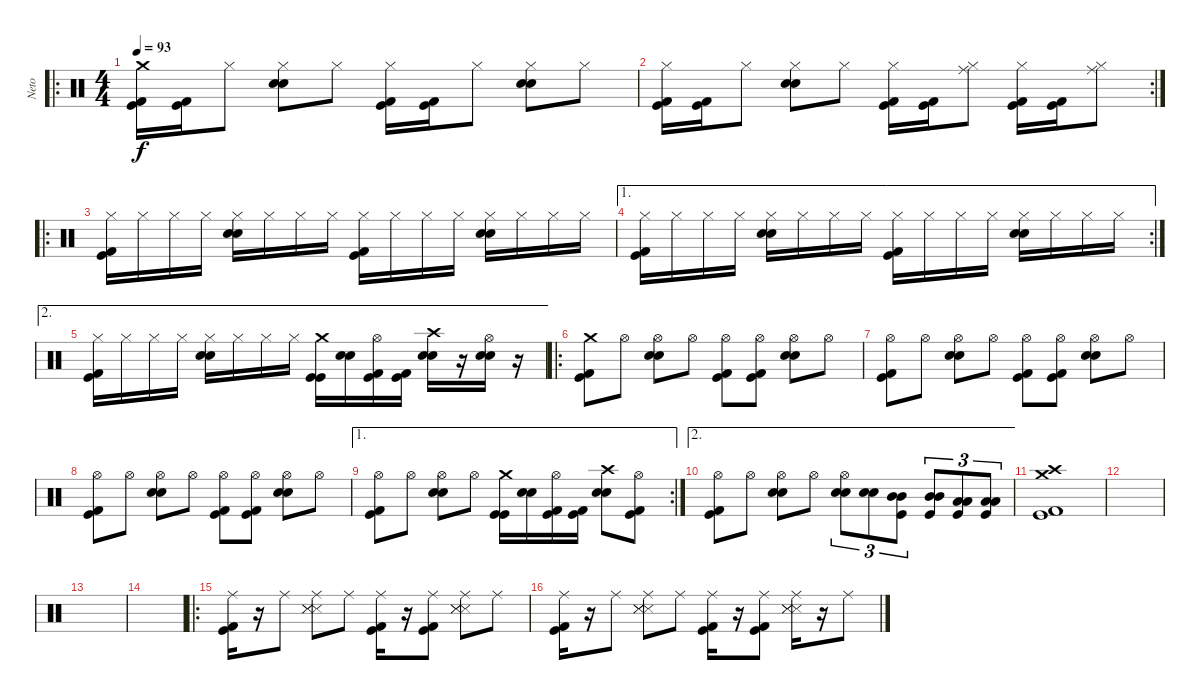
\track ("Neto" "Neto") {instrument percussion}
\staff {score}
\articulation defaults
\ro
\ts (4 4)
\tempo 93
\clef neutral
\ks c
("Crash medium (hit)" "Kick (hit)" "Kick (hit) 2").16{dy f} ("Kick (hit)" "Kick (hit) 2").16 "Hi-Hat (closed)".8 ("Hi-Hat (closed)" "Snare (hit) 2" "Snare (hit) 2").8 "Hi-Hat (closed)".8 ("Hi-Hat (closed)" "Kick (hit)" "Kick (hit) 2").16 ("Kick (hit)" "Kick (hit) 2").16 "Hi-Hat (closed)".8 ("Hi-Hat (closed)" "Snare (hit) 2" "Snare (hit) 2").8 "Hi-Hat (closed)".8 |
\rc 2
("Hi-Hat (closed)" "Kick (hit)" "Kick (hit) 2").16 ("Kick (hit)" "Kick (hit) 2").16 "Hi-Hat (closed)".8 ("Hi-Hat (closed)" "Snare (hit) 2" "Snare (hit) 2").8 "Hi-Hat (closed)".8 ("Hi-Hat (closed)" "Kick (hit)" "Kick (hit) 2").16 ("Kick (hit)" "Kick (hit) 2").16 ("Hi-Hat (closed)" "Ride (middle)").8 ("Hi-Hat (closed)" "Kick (hit)" "Kick (hit) 2").16 ("Kick (hit)" "Kick (hit) 2").16 ("Hi-Hat (closed)" "Ride (middle)").8 |
\ro
("Hi-Hat (closed)" "Kick (hit)" "Kick (hit) 2").16 "Hi-Hat (closed)".16 "Hi-Hat (closed)".16 "Hi-Hat (closed)".16 ("Hi-Hat (closed)" "Snare (hit) 2" "Snare (hit) 2").16 "Hi-Hat (closed)".16 "Hi-Hat (closed)".16 "Hi-Hat (closed)".16 ("Hi-Hat (closed)" "Kick (hit)" "Kick (hit) 2").16 "Hi-Hat (closed)".16 "Hi-Hat (closed)".16 "Hi-Hat (closed)".16 ("Hi-Hat (closed)" "Snare (hit) 2" "Snare (hit) 2").16 "Hi-Hat (closed)".16 "Hi-Hat (closed)".16 "Hi-Hat (closed)".16 |
\ae 1
\rc 2
("Hi-Hat (closed)" "Kick (hit)" "Kick (hit) 2").16 "Hi-Hat (closed)".16 "Hi-Hat (closed)".16 "Hi-Hat (closed)".16 ("Hi-Hat (closed)" "Snare (hit) 2" "Snare (hit) 2").16 "Hi-Hat (closed)".16 "Hi-Hat (closed)".16 "Hi-Hat (closed)".16 ("Hi-Hat (closed)" "Kick (hit)" "Kick (hit) 2").16 "Hi-Hat (closed)".16 "Hi-Hat (closed)".16 "Hi-Hat (closed)".16 ("Hi-Hat (closed)" "Snare (hit) 2" "Snare (hit) 2").16 "Hi-Hat (closed)".16 "Hi-Hat (closed)".16 "Hi-Hat (closed)".16 |
\ae 2
("Hi-Hat (closed)" "Kick (hit)" "Kick (hit) 2").16 "Hi-Hat (closed)".16 "Hi-Hat (closed)".16 "Hi-Hat (closed)".16 ("Hi-Hat (closed)" "Snare (hit) 2" "Snare (hit) 2").16 "Hi-Hat (closed)".16 "Hi-Hat (closed)".16 "Hi-Hat (closed)".16 ("Crash medium (hit)" "Kick (hit)" "Kick (hit)").16 ("Snare (hit) 2" "Snare (hit) 2").16 ("Hi-Hat (open)" "Kick (hit)" "Kick (hit) 2").16 ("Kick (hit)" "Kick (hit) 2").16 ("Crash high (hit)" "Snare (hit) 2" "Snare (hit) 2").16 r.16 ("Hi-Hat (open)" "Snare (hit) 2" "Snare (hit) 2").16 r.16 |
\ro
("Crash medium (hit)" "Kick (hit)" "Kick (hit) 2").8 "Hi-Hat (open)".8 ("Hi-Hat (open)" "Snare (hit) 2" "Snare (hit) 2").8 "Hi-Hat (open)".8 ("Hi-Hat (open)" "Kick (hit)" "Kick (hit) 2").8 ("Hi-Hat (open)" "Kick (hit)" "Kick (hit) 2").8 ("Hi-Hat (open)" "Snare (hit) 2" "Snare (hit) 2").8 "Hi-Hat (open)".8 |
("Hi-Hat (open)" "Kick (hit)" "Kick (hit) 2").8 "Hi-Hat (open)".8 ("Hi-Hat (open)" "Snare (hit) 2" "Snare (hit) 2").8 "Hi-Hat (open)".8 ("Hi-Hat (open)" "Kick (hit)" "Kick (hit) 2").8 ("Hi-Hat (open)" "Kick (hit)" "Kick (hit) 2").8 ("Hi-Hat (open)" "Snare (hit) 2" "Snare (hit) 2").8 "Hi-Hat (open)".8 |
("Hi-Hat (open)" "Kick (hit)" "Kick (hit) 2").8 "Hi-Hat (open)".8 ("Hi-Hat (open)" "Snare (hit) 2" "Snare (hit) 2").8 "Hi-Hat (open)".8 ("Hi-Hat (open)" "Kick (hit)" "Kick (hit) 2").8 ("Hi-Hat (open)" "Kick (hit)" "Kick (hit) 2").8 ("Hi-Hat (open)" "Snare (hit) 2" "Snare (hit) 2").8 "Hi-Hat (open)".8 |
\ae 1
\rc 2
("Hi-Hat (open)" "Kick (hit)" "Kick (hit) 2").8 "Hi-Hat (open)".8 ("Hi-Hat (open)" "Snare (hit) 2" "Snare (hit) 2").8 "Hi-Hat (open)".8 ("Crash medium (hit)" "Kick (hit)" "Kick (hit)").16 ("Snare (hit) 2" "Snare (hit) 2").16 ("Hi-Hat (open)" "Kick (hit)" "Kick (hit) 2").16 ("Kick (hit)" "Kick (hit) 2").16 ("Crash high (hit)" "Snare (hit) 2" "Snare (hit) 2").8 ("Hi-Hat (open)" "Kick (hit)" "Kick (hit) 2").8 |
\ae 2
("Hi-Hat (open)" "Kick (hit)" "Kick (hit) 2").8 "Hi-Hat (open)".8 ("Hi-Hat (open)" "Snare (hit) 2" "Snare (hit) 2").8 "Hi-Hat (open)".8 ("Hi-Hat (open)" "Snare (hit) 2" "Snare (hit) 2").8{tu (3 2)} ("Snare (hit) 2" "Snare (hit) 2").8{tu (3 2)} ("Mid Tom (hit)" "Mid Tom (hit)" "Kick (hit)").8{tu (3 2)} ("Mid Tom (hit)" "Mid Tom (hit)" "Kick (hit)").8{tu (3 2)} ("Low Tom (hit)" "Low Tom (hit)" "Kick (hit)").8{tu (3 2)} ("Low Tom (hit)" "Low Tom (hit)" "Kick (hit)").8{tu (3 2)} |
("Crash high (hit)" "Crash medium (hit)" "Kick (hit)" "Kick (hit) 2").1 |
|
|
|
\ro
("Ride (middle)" "Kick (hit)" "Kick (hit) 2").16 r.16 "Ride (middle)".8 ("Ride (middle)" "Snare (side stick) 3" "Snare (side stick) 3" "Snare (side stick) 3").8 "Ride (middle)".8 ("Ride (middle)" "Kick (hit)" "Kick (hit) 2").16 r.16 ("Ride (middle)" "Kick (hit)" "Kick (hit) 2").8 ("Ride (middle)" "Snare (side stick) 3" "Snare (side stick) 3" "Snare (side stick) 3").8 "Ride (middle)".8 |
("Ride (middle)" "Kick (hit)" "Kick (hit) 2").16 r.16 "Ride (middle)".8 ("Ride (middle)" "Snare (side stick) 3" "Snare (side stick) 3" "Snare (side stick) 3").8 "Ride (middle)".8 ("Ride (middle)" "Kick (hit)" "Kick (hit) 2").16 r.16 ("Ride (middle)" "Kick (hit) 2" "Kick (hit)").8 ("Ride (middle)" "Snare (side stick) 3" "Snare (side stick) 3" "Snare (side stick) 3").16 r.16 "Ride (middle)".8
